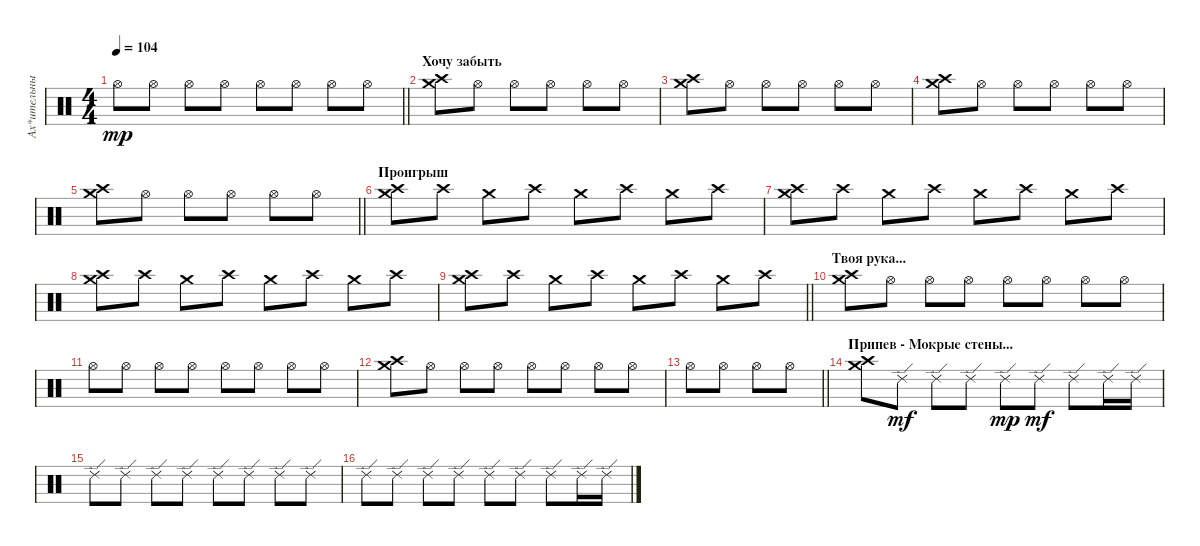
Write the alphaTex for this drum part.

\track ("Ах*ительный барабанщик" "Ах*ительны") {instrument percussion}
\staff {score}
\articulation defaults
\ts (4 4)
\tempo 104
\clef neutral
\barLineRight lightlight
\ks c "Hi-Hat (open)".8{dy mp} "Hi-Hat (open)".8 "Hi-Hat (open)".8 "Hi-Hat (open)".8 "Hi-Hat (open)".8 "Hi-Hat (open)".8 "Hi-Hat (open)".8 "Hi-Hat (open)".8
|
\section ("" "Хочу забыть")
("Crash high (hit)" "Crash medium (hit)").8 "Hi-Hat (open)".8 "Hi-Hat (open)".8 "Hi-Hat (open)".8 "Hi-Hat (open)".8 "Hi-Hat (open)".8 |
("Crash high (hit)" "Crash medium (hit)").8 "Hi-Hat (open)".8 "Hi-Hat (open)".8 "Hi-Hat (open)".8 "Hi-Hat (open)".8 "Hi-Hat (open)".8 |
("Crash high (hit)" "Crash medium (hit)").8 "Hi-Hat (open)".8 "Hi-Hat (open)".8 "Hi-Hat (open)".8 "Hi-Hat (open)".8 "Hi-Hat (open)".8 |
\barLineRight lightlight
("Crash high (hit)" "Crash medium (hit)").8 "Hi-Hat (open)".8 "Hi-Hat (open)".8 "Hi-Hat (open)".8 "Hi-Hat (open)".8 "Hi-Hat (open)".8 |
\section ("" "Проигрыш")
("Crash medium (hit)" "Crash high (hit)").8 "Crash high (hit)".8 "Crash medium (hit)".8 "Crash high (hit)".8 "Crash medium (hit)".8 "Crash high (hit)".8 "Crash medium (hit)".8 "Crash high (hit)".8 |
("Crash medium (hit)" "Crash high (hit)").8 "Crash high (hit)".8 "Crash medium (hit)".8 "Crash high (hit)".8 "Crash medium (hit)".8 "Crash high (hit)".8 "Crash medium (hit)".8 "Crash high (hit)".8 |
("Crash medium (hit)" "Crash high (hit)").8 "Crash high (hit)".8 "Crash medium (hit)".8 "Crash high (hit)".8 "Crash medium (hit)".8 "Crash high (hit)".8 "Crash medium (hit)".8 "Crash high (hit)".8 |
\barLineRight lightlight
("Crash medium (hit)" "Crash high (hit)").8 "Crash high (hit)".8 "Crash medium (hit)".8 "Crash high (hit)".8 "Crash medium (hit)".8 "Crash high (hit)".8 "Crash medium (hit)".8 "Crash high (hit)".8 |
\section ("" "Твоя рука...")
("Crash medium (hit)" "Crash high (hit)").8 "Hi-Hat (open)".8 "Hi-Hat (open)".8 "Hi-Hat (open)".8 "Hi-Hat (open)".8 "Hi-Hat (open)".8 "Hi-Hat (open)".8 "Hi-Hat (open)".8 |
"Hi-Hat (open)".8 "Hi-Hat (open)".8 "Hi-Hat (open)".8 "Hi-Hat (open)".8 "Hi-Hat (open)".8 "Hi-Hat (open)".8 "Hi-Hat (open)".8 "Hi-Hat (open)".8 |
("Crash medium (hit)" "Crash high (hit)").8 "Hi-Hat (open)".8 "Hi-Hat (open)".8 "Hi-Hat (open)".8 "Hi-Hat (open)".8 "Hi-Hat (open)".8 "Hi-Hat (open)".8 "Hi-Hat (open)".8 |
\barLineRight lightlight "Hi-Hat (open)".8 "Hi-Hat (open)".8 "Hi-Hat (open)".8 "Hi-Hat (open)".8
|
\section ("" "Припев - Мокрые стены...")
("Crash high (hit)" "Crash medium (hit)").8 "Ride (edge) 2".8{dy mf} "Ride (edge) 2".8 "Ride (edge) 2".8 "Ride (edge) 2".8{dy mp} "Ride (edge) 2".8{dy mf} "Ride (edge) 2".8 "Ride (edge) 2".16 "Ride (edge) 2".16 |
"Ride (edge) 2".8 "Ride (edge) 2".8 "Ride (edge) 2".8 "Ride (edge) 2".8 "Ride (edge) 2".8 "Ride (edge) 2".8 "Ride (edge) 2".8 "Ride (edge) 2".8 |
"Ride (edge) 2".8 "Ride (edge) 2".8 "Ride (edge) 2".8 "Ride (edge) 2".8 "Ride (edge) 2".8 "Ride (edge) 2".8 "Ride (edge) 2".8 "Ride (edge) 2".16 "Ride (edge) 2".16
